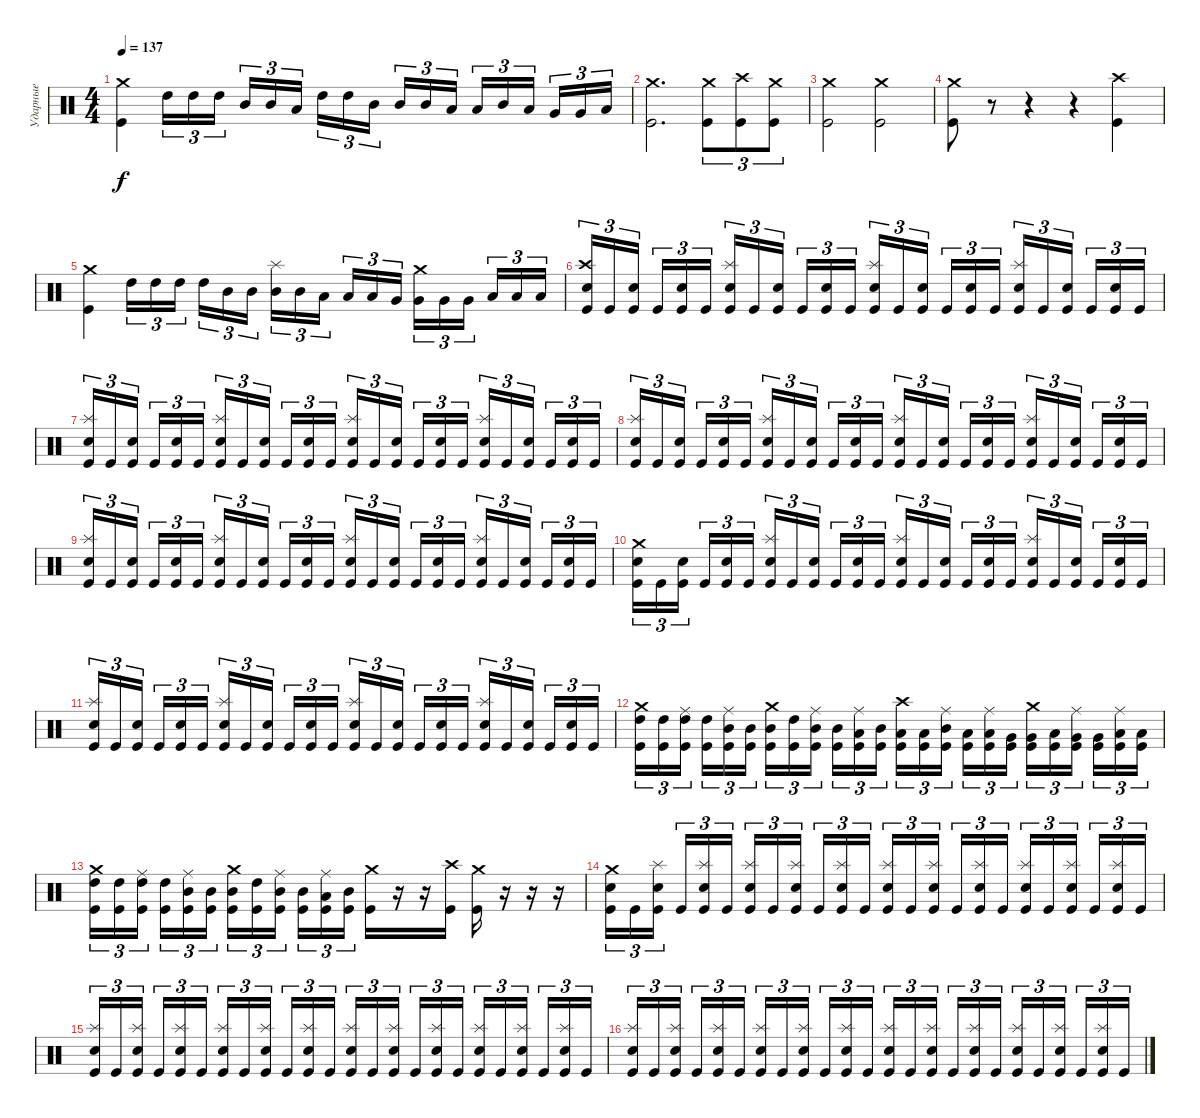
\track ("Ударные" "Ударные") {instrument percussion}
\staff {score}
\articulation defaults
\ts (4 4)
\tempo 137
\clef neutral
\ks c
("Crash medium (hit)" "Kick (hit)").4{dy f} "High Tom (hit)".16{tu (3 2)} "High Tom (hit)".16{tu (3 2)} "High Tom (hit)".16{tu (3 2) beam splitsecondary} "Mid Tom (hit)".16{tu (3 2)} "Mid Tom (hit)".16{tu (3 2)} "Low Tom (hit)".16{tu (3 2)} "High Tom (hit)".16{tu (3 2)} "High Tom (hit)".16{tu (3 2)} "Mid Tom (hit)".16{tu (3 2) beam splitsecondary} "Mid Tom (hit)".16{tu (3 2)} "Mid Tom (hit)".16{tu (3 2)} "Low Tom (hit)".16{tu (3 2)} "Low Tom (hit)".16{tu (3 2)} "Mid Tom (hit)".16{tu (3 2)} "Low Tom (hit)".16{tu (3 2) beam splitsecondary} "Very Low Tom (hit)".16{tu (3 2)} "Very Low Tom (hit)".16{tu (3 2)} "Low Floor Tom (hit)".16{tu (3 2)} |
("Crash medium (hit)" "Kick (hit)").2{d} ("Crash medium (hit)" "Kick (hit)").8{tu (3 2)} ("Crash high (hit)" "Kick (hit)").8{tu (3 2)} ("Crash medium (hit)" "Kick (hit)").8{tu (3 2)} |
("Crash medium (hit)" "Kick (hit)").2 ("Crash medium (hit)" "Kick (hit)").2 |
("Crash medium (hit)" "Kick (hit)").8 r.8 r.4 r.4 ("Crash high (hit)" "Kick (hit)").4 |
("Crash medium (hit)" "Kick (hit)").4 "High Tom (hit)".16{tu (3 2)} "High Tom (hit)".16{tu (3 2)} "High Tom (hit)".16{tu (3 2) beam splitsecondary} "High Tom (hit)".16{tu (3 2)} "Mid Tom (hit)".16{tu (3 2)} "Mid Tom (hit)".16{tu (3 2)} ("Splash (hit)" "Mid Tom (hit)").16{tu (3 2)} "Mid Tom (hit)".16{tu (3 2)} "Low Tom (hit)".16{tu (3 2) beam splitsecondary} "Low Tom (hit)".16{tu (3 2)} "Low Tom (hit)".16{tu (3 2)} "Very Low Tom (hit)".16{tu (3 2)} ("Crash medium (hit)" "Very Low Tom (hit)").16{tu (3 2)} "Very Low Tom (hit)".16{tu (3 2)} "Very Low Tom (hit)".16{tu (3 2) beam splitsecondary} "Low Floor Tom (hit)".16{tu (3 2)} "Low Floor Tom (hit)".16{tu (3 2)} "Low Floor Tom (hit)".16{tu (3 2)} |
("Crash high (hit)" "Electric Snare (hit)" "Kick (hit)").16{tu (3 2)} "Kick (hit)".16{tu (3 2)} ("Electric Snare (hit)" "Kick (hit)").16{tu (3 2) beam splitsecondary} "Kick (hit)".16{tu (3 2)} ("Electric Snare (hit)" "Kick (hit)").16{tu (3 2)} "Kick (hit)".16{tu (3 2)} ("Splash (hit)" "Electric Snare (hit)" "Kick (hit)").16{tu (3 2)} "Kick (hit)".16{tu (3 2)} ("Electric Snare (hit)" "Kick (hit)").16{tu (3 2) beam splitsecondary} "Kick (hit)".16{tu (3 2)} ("Electric Snare (hit)" "Kick (hit)").16{tu (3 2)} "Kick (hit)".16{tu (3 2)} ("Splash (hit)" "Electric Snare (hit)" "Kick (hit)").16{tu (3 2)} "Kick (hit)".16{tu (3 2)} ("Electric Snare (hit)" "Kick (hit)").16{tu (3 2) beam splitsecondary} "Kick (hit)".16{tu (3 2)} ("Electric Snare (hit)" "Kick (hit)").16{tu (3 2)} "Kick (hit)".16{tu (3 2)} ("Splash (hit)" "Electric Snare (hit)" "Kick (hit)").16{tu (3 2)} "Kick (hit)".16{tu (3 2)} ("Electric Snare (hit)" "Kick (hit)").16{tu (3 2) beam splitsecondary} "Kick (hit)".16{tu (3 2)} ("Electric Snare (hit)" "Kick (hit)").16{tu (3 2)} "Kick (hit)".16{tu (3 2)} |
("Splash (hit)" "Electric Snare (hit)" "Kick (hit)").16{tu (3 2)} "Kick (hit)".16{tu (3 2)} ("Electric Snare (hit)" "Kick (hit)").16{tu (3 2) beam splitsecondary} "Kick (hit)".16{tu (3 2)} ("Electric Snare (hit)" "Kick (hit)").16{tu (3 2)} "Kick (hit)".16{tu (3 2)} ("Splash (hit)" "Electric Snare (hit)" "Kick (hit)").16{tu (3 2)} "Kick (hit)".16{tu (3 2)} ("Electric Snare (hit)" "Kick (hit)").16{tu (3 2) beam splitsecondary} "Kick (hit)".16{tu (3 2)} ("Electric Snare (hit)" "Kick (hit)").16{tu (3 2)} "Kick (hit)".16{tu (3 2)} ("Splash (hit)" "Electric Snare (hit)" "Kick (hit)").16{tu (3 2)} "Kick (hit)".16{tu (3 2)} ("Electric Snare (hit)" "Kick (hit)").16{tu (3 2) beam splitsecondary} "Kick (hit)".16{tu (3 2)} ("Electric Snare (hit)" "Kick (hit)").16{tu (3 2)} "Kick (hit)".16{tu (3 2)} ("Splash (hit)" "Electric Snare (hit)" "Kick (hit)").16{tu (3 2)} "Kick (hit)".16{tu (3 2)} ("Electric Snare (hit)" "Kick (hit)").16{tu (3 2) beam splitsecondary} "Kick (hit)".16{tu (3 2)} ("Electric Snare (hit)" "Kick (hit)").16{tu (3 2)} "Kick (hit)".16{tu (3 2)} |
("Splash (hit)" "Electric Snare (hit)" "Kick (hit)").16{tu (3 2)} "Kick (hit)".16{tu (3 2)} ("Electric Snare (hit)" "Kick (hit)").16{tu (3 2) beam splitsecondary} "Kick (hit)".16{tu (3 2)} ("Electric Snare (hit)" "Kick (hit)").16{tu (3 2)} "Kick (hit)".16{tu (3 2)} ("Splash (hit)" "Electric Snare (hit)" "Kick (hit)").16{tu (3 2)} "Kick (hit)".16{tu (3 2)} ("Electric Snare (hit)" "Kick (hit)").16{tu (3 2) beam splitsecondary} "Kick (hit)".16{tu (3 2)} ("Electric Snare (hit)" "Kick (hit)").16{tu (3 2)} "Kick (hit)".16{tu (3 2)} ("Splash (hit)" "Electric Snare (hit)" "Kick (hit)").16{tu (3 2)} "Kick (hit)".16{tu (3 2)} ("Electric Snare (hit)" "Kick (hit)").16{tu (3 2) beam splitsecondary} "Kick (hit)".16{tu (3 2)} ("Electric Snare (hit)" "Kick (hit)").16{tu (3 2)} "Kick (hit)".16{tu (3 2)} ("Splash (hit)" "Electric Snare (hit)" "Kick (hit)").16{tu (3 2)} "Kick (hit)".16{tu (3 2)} ("Electric Snare (hit)" "Kick (hit)").16{tu (3 2) beam splitsecondary} "Kick (hit)".16{tu (3 2)} ("Electric Snare (hit)" "Kick (hit)").16{tu (3 2)} "Kick (hit)".16{tu (3 2)} |
("Splash (hit)" "Electric Snare (hit)" "Kick (hit)").16{tu (3 2)} "Kick (hit)".16{tu (3 2)} ("Electric Snare (hit)" "Kick (hit)").16{tu (3 2) beam splitsecondary} "Kick (hit)".16{tu (3 2)} ("Electric Snare (hit)" "Kick (hit)").16{tu (3 2)} "Kick (hit)".16{tu (3 2)} ("Splash (hit)" "Electric Snare (hit)" "Kick (hit)").16{tu (3 2)} "Kick (hit)".16{tu (3 2)} ("Electric Snare (hit)" "Kick (hit)").16{tu (3 2) beam splitsecondary} "Kick (hit)".16{tu (3 2)} ("Electric Snare (hit)" "Kick (hit)").16{tu (3 2)} "Kick (hit)".16{tu (3 2)} ("Splash (hit)" "Electric Snare (hit)" "Kick (hit)").16{tu (3 2)} "Kick (hit)".16{tu (3 2)} ("Electric Snare (hit)" "Kick (hit)").16{tu (3 2) beam splitsecondary} "Kick (hit)".16{tu (3 2)} ("Electric Snare (hit)" "Kick (hit)").16{tu (3 2)} "Kick (hit)".16{tu (3 2)} ("Splash (hit)" "Electric Snare (hit)" "Kick (hit)").16{tu (3 2)} "Kick (hit)".16{tu (3 2)} ("Electric Snare (hit)" "Kick (hit)").16{tu (3 2) beam splitsecondary} "Kick (hit)".16{tu (3 2)} ("Electric Snare (hit)" "Kick (hit)").16{tu (3 2)} "Kick (hit)".16{tu (3 2)} |
("Crash medium (hit)" "Electric Snare (hit)" "Kick (hit)").16{tu (3 2)} "Kick (hit)".16{tu (3 2)} ("Electric Snare (hit)" "Kick (hit)").16{tu (3 2) beam splitsecondary} "Kick (hit)".16{tu (3 2)} ("Electric Snare (hit)" "Kick (hit)").16{tu (3 2)} "Kick (hit)".16{tu (3 2)} ("Splash (hit)" "Electric Snare (hit)" "Kick (hit)").16{tu (3 2)} "Kick (hit)".16{tu (3 2)} ("Electric Snare (hit)" "Kick (hit)").16{tu (3 2) beam splitsecondary} "Kick (hit)".16{tu (3 2)} ("Electric Snare (hit)" "Kick (hit)").16{tu (3 2)} "Kick (hit)".16{tu (3 2)} ("Splash (hit)" "Electric Snare (hit)" "Kick (hit)").16{tu (3 2)} "Kick (hit)".16{tu (3 2)} ("Electric Snare (hit)" "Kick (hit)").16{tu (3 2) beam splitsecondary} "Kick (hit)".16{tu (3 2)} ("Electric Snare (hit)" "Kick (hit)").16{tu (3 2)} "Kick (hit)".16{tu (3 2)} ("Splash (hit)" "Electric Snare (hit)" "Kick (hit)").16{tu (3 2)} "Kick (hit)".16{tu (3 2)} ("Electric Snare (hit)" "Kick (hit)").16{tu (3 2) beam splitsecondary} "Kick (hit)".16{tu (3 2)} ("Electric Snare (hit)" "Kick (hit)").16{tu (3 2)} "Kick (hit)".16{tu (3 2)} |
("Splash (hit)" "Electric Snare (hit)" "Kick (hit)").16{tu (3 2)} "Kick (hit)".16{tu (3 2)} ("Electric Snare (hit)" "Kick (hit)").16{tu (3 2) beam splitsecondary} "Kick (hit)".16{tu (3 2)} ("Electric Snare (hit)" "Kick (hit)").16{tu (3 2)} "Kick (hit)".16{tu (3 2)} ("Splash (hit)" "Electric Snare (hit)" "Kick (hit)").16{tu (3 2)} "Kick (hit)".16{tu (3 2)} ("Electric Snare (hit)" "Kick (hit)").16{tu (3 2) beam splitsecondary} "Kick (hit)".16{tu (3 2)} ("Electric Snare (hit)" "Kick (hit)").16{tu (3 2)} "Kick (hit)".16{tu (3 2)} ("Splash (hit)" "Electric Snare (hit)" "Kick (hit)").16{tu (3 2)} "Kick (hit)".16{tu (3 2)} ("Electric Snare (hit)" "Kick (hit)").16{tu (3 2) beam splitsecondary} "Kick (hit)".16{tu (3 2)} ("Electric Snare (hit)" "Kick (hit)").16{tu (3 2)} "Kick (hit)".16{tu (3 2)} ("Splash (hit)" "Electric Snare (hit)" "Kick (hit)").16{tu (3 2)} "Kick (hit)".16{tu (3 2)} ("Electric Snare (hit)" "Kick (hit)").16{tu (3 2) beam splitsecondary} "Kick (hit)".16{tu (3 2)} ("Electric Snare (hit)" "Kick (hit)").16{tu (3 2)} "Kick (hit)".16{tu (3 2)} |
("Crash medium (hit)" "High Tom (hit)" "Kick (hit)").16{tu (3 2)} ("High Tom (hit)" "Kick (hit)").16{tu (3 2)} ("Ride (middle)" "High Tom (hit)" "Kick (hit)").16{tu (3 2) beam splitsecondary} ("High Tom (hit)" "Kick (hit)").16{tu (3 2)} ("Ride (middle)" "Mid Tom (hit)" "Kick (hit)").16{tu (3 2)} ("Mid Tom (hit)" "Kick (hit)").16{tu (3 2)} ("Crash medium (hit)" "Mid Tom (hit)" "Kick (hit)").16{tu (3 2)} ("High Tom (hit)" "Kick (hit)").16{tu (3 2)} ("Ride (middle)" "Mid Tom (hit)" "Kick (hit)").16{tu (3 2) beam splitsecondary} ("Mid Tom (hit)" "Kick (hit)").16{tu (3 2)} ("Ride (middle)" "Low Tom (hit)" "Kick (hit)").16{tu (3 2)} ("Mid Tom (hit)" "Kick (hit)").16{tu (3 2)} ("Crash high (hit)" "Low Tom (hit)" "Kick (hit)").16{tu (3 2)} ("Low Tom (hit)" "Kick (hit)").16{tu (3 2)} ("Ride (middle)" "Mid Tom (hit)" "Kick (hit)").16{tu (3 2) beam splitsecondary} ("Low Tom (hit)" "Kick (hit)").16{tu (3 2)} ("Ride (middle)" "Low Tom (hit)" "Kick (hit)").16{tu (3 2)} ("Very Low Tom (hit)" "Kick (hit)").16{tu (3 2)} ("Crash medium (hit)" "Very Low Tom (hit)" "Kick (hit)").16{tu (3 2)} ("Low Tom (hit)" "Kick (hit)").16{tu (3 2)} ("Ride (middle)" "Very Low Tom (hit)" "Kick (hit)").16{tu (3 2) beam splitsecondary} ("Very Low Tom (hit)" "Kick (hit)").16{tu (3 2)} ("Ride (middle)" "Low Floor Tom (hit)" "Kick (hit)").16{tu (3 2)} ("Low Floor Tom (hit)" "Kick (hit)").16{tu (3 2)} |
("Crash medium (hit)" "High Tom (hit)" "Kick (hit)").16{tu (3 2)} ("High Tom (hit)" "Kick (hit)").16{tu (3 2)} ("Ride (middle)" "High Tom (hit)" "Kick (hit)").16{tu (3 2) beam splitsecondary} ("High Tom (hit)" "Kick (hit)").16{tu (3 2)} ("Ride (middle)" "Mid Tom (hit)" "Kick (hit)").16{tu (3 2)} ("Mid Tom (hit)" "Kick (hit)").16{tu (3 2)} ("Crash medium (hit)" "Mid Tom (hit)" "Kick (hit)").16{tu (3 2)} ("High Tom (hit)" "Kick (hit)").16{tu (3 2)} ("Ride (middle)" "Mid Tom (hit)" "Kick (hit)").16{tu (3 2) beam splitsecondary} ("Mid Tom (hit)" "Kick (hit)").16{tu (3 2)} ("Ride (middle)" "Low Tom (hit)" "Kick (hit)").16{tu (3 2)} ("Mid Tom (hit)" "Kick (hit)").16{tu (3 2)} ("Crash medium (hit)" "Kick (hit)").16 r.16 r.16 ("Crash high (hit)" "Kick (hit)").16 ("Crash medium (hit)" "Kick (hit)").16 r.16 r.16 r.16 |
("Crash medium (hit)" "Electric Snare (hit)" "Kick (hit)").16{tu (3 2)} "Kick (hit)".16{tu (3 2)} ("Splash (hit)" "Electric Snare (hit)" "Kick (hit)").16{tu (3 2) beam splitsecondary} "Kick (hit)".16{tu (3 2)} ("Splash (hit)" "Electric Snare (hit)" "Kick (hit)").16{tu (3 2)} "Kick (hit)".16{tu (3 2)} ("Splash (hit)" "Electric Snare (hit)" "Kick (hit)").16{tu (3 2)} "Kick (hit)".16{tu (3 2)} ("Splash (hit)" "Electric Snare (hit)" "Kick (hit)").16{tu (3 2) beam splitsecondary} "Kick (hit)".16{tu (3 2)} ("Splash (hit)" "Electric Snare (hit)" "Kick (hit)").16{tu (3 2)} "Kick (hit)".16{tu (3 2)} ("Splash (hit)" "Electric Snare (hit)" "Kick (hit)").16{tu (3 2)} "Kick (hit)".16{tu (3 2)} ("Splash (hit)" "Electric Snare (hit)" "Kick (hit)").16{tu (3 2) beam splitsecondary} "Kick (hit)".16{tu (3 2)} ("Splash (hit)" "Electric Snare (hit)" "Kick (hit)").16{tu (3 2)} "Kick (hit)".16{tu (3 2)} ("Splash (hit)" "Electric Snare (hit)" "Kick (hit)").16{tu (3 2)} "Kick (hit)".16{tu (3 2)} ("Splash (hit)" "Electric Snare (hit)" "Kick (hit)").16{tu (3 2) beam splitsecondary} "Kick (hit)".16{tu (3 2)} ("Splash (hit)" "Electric Snare (hit)" "Kick (hit)").16{tu (3 2)} "Kick (hit)".16{tu (3 2)} |
("Splash (hit)" "Electric Snare (hit)" "Kick (hit)").16{tu (3 2)} "Kick (hit)".16{tu (3 2)} ("Splash (hit)" "Electric Snare (hit)" "Kick (hit)").16{tu (3 2) beam splitsecondary} "Kick (hit)".16{tu (3 2)} ("Splash (hit)" "Electric Snare (hit)" "Kick (hit)").16{tu (3 2)} "Kick (hit)".16{tu (3 2)} ("Splash (hit)" "Electric Snare (hit)" "Kick (hit)").16{tu (3 2)} "Kick (hit)".16{tu (3 2)} ("Splash (hit)" "Electric Snare (hit)" "Kick (hit)").16{tu (3 2) beam splitsecondary} "Kick (hit)".16{tu (3 2)} ("Splash (hit)" "Electric Snare (hit)" "Kick (hit)").16{tu (3 2)} "Kick (hit)".16{tu (3 2)} ("Splash (hit)" "Electric Snare (hit)" "Kick (hit)").16{tu (3 2)} "Kick (hit)".16{tu (3 2)} ("Splash (hit)" "Electric Snare (hit)" "Kick (hit)").16{tu (3 2) beam splitsecondary} "Kick (hit)".16{tu (3 2)} ("Splash (hit)" "Electric Snare (hit)" "Kick (hit)").16{tu (3 2)} "Kick (hit)".16{tu (3 2)} ("Splash (hit)" "Electric Snare (hit)" "Kick (hit)").16{tu (3 2)} "Kick (hit)".16{tu (3 2)} ("Splash (hit)" "Electric Snare (hit)" "Kick (hit)").16{tu (3 2) beam splitsecondary} "Kick (hit)".16{tu (3 2)} ("Splash (hit)" "Electric Snare (hit)" "Kick (hit)").16{tu (3 2)} "Kick (hit)".16{tu (3 2)} |
("Splash (hit)" "Electric Snare (hit)" "Kick (hit)").16{tu (3 2)} "Kick (hit)".16{tu (3 2)} ("Splash (hit)" "Electric Snare (hit)" "Kick (hit)").16{tu (3 2) beam splitsecondary} "Kick (hit)".16{tu (3 2)} ("Splash (hit)" "Electric Snare (hit)" "Kick (hit)").16{tu (3 2)} "Kick (hit)".16{tu (3 2)} ("Splash (hit)" "Electric Snare (hit)" "Kick (hit)").16{tu (3 2)} "Kick (hit)".16{tu (3 2)} ("Splash (hit)" "Electric Snare (hit)" "Kick (hit)").16{tu (3 2) beam splitsecondary} "Kick (hit)".16{tu (3 2)} ("Splash (hit)" "Electric Snare (hit)" "Kick (hit)").16{tu (3 2)} "Kick (hit)".16{tu (3 2)} ("Splash (hit)" "Electric Snare (hit)" "Kick (hit)").16{tu (3 2)} "Kick (hit)".16{tu (3 2)} ("Splash (hit)" "Electric Snare (hit)" "Kick (hit)").16{tu (3 2) beam splitsecondary} "Kick (hit)".16{tu (3 2)} ("Splash (hit)" "Electric Snare (hit)" "Kick (hit)").16{tu (3 2)} "Kick (hit)".16{tu (3 2)} ("Splash (hit)" "Electric Snare (hit)" "Kick (hit)").16{tu (3 2)} "Kick (hit)".16{tu (3 2)} ("Splash (hit)" "Electric Snare (hit)" "Kick (hit)").16{tu (3 2) beam splitsecondary} "Kick (hit)".16{tu (3 2)} ("Splash (hit)" "Electric Snare (hit)" "Kick (hit)").16{tu (3 2)} "Kick (hit)".16{tu (3 2)}
